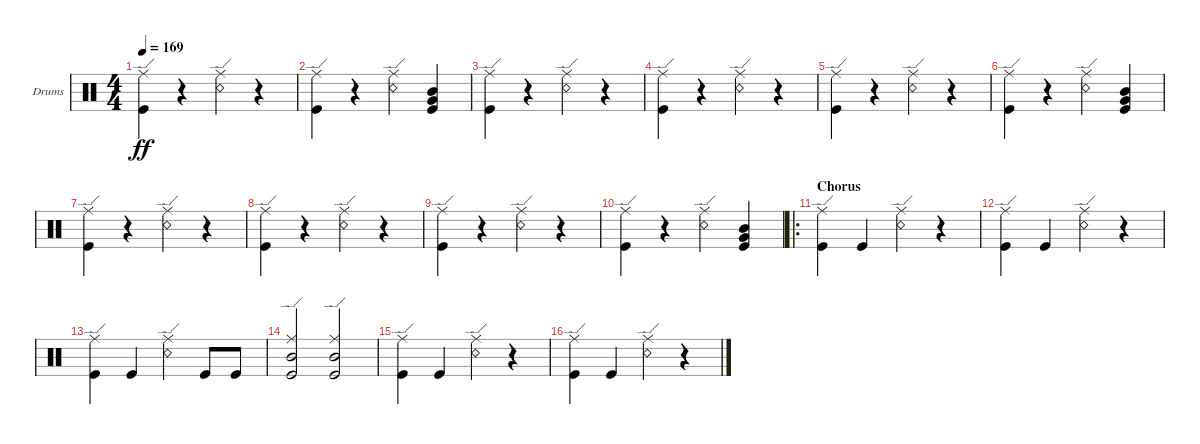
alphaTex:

\bracketExtendMode groupsimilarinstruments
\firstSystemTrackNameOrientation horizontal
\otherSystemsTrackNameOrientation horizontal
\track ("Drumkit" "Drums") {instrument percussion}
\staff {score}
\articulation defaults
\ts (4 4)
\tempo 169
\clef neutral
\ks c
("Kick (hit)" "Ride (edge)").4{dy ff} r.4 ("Snare (rim shot)" "Ride (edge)").4 r.4 |
("Kick (hit)" "Ride (edge)").4 r.4 ("Snare (rim shot)" "Ride (edge)").4 ("Mid Tom (hit)" "Very Low Tom (hit)" "Kick (hit)").4 |
("Kick (hit)" "Ride (edge)").4 r.4 ("Snare (rim shot)" "Ride (edge)").4 r.4 |
("Kick (hit)" "Ride (edge)").4 r.4 ("Snare (rim shot)" "Ride (edge)").4 r.4 |
("Kick (hit)" "Ride (edge)").4 r.4 ("Snare (rim shot)" "Ride (edge)").4 r.4 |
("Kick (hit)" "Ride (edge)").4 r.4 ("Snare (rim shot)" "Ride (edge)").4 ("Mid Tom (hit)" "Very Low Tom (hit)" "Kick (hit)").4 |
("Kick (hit)" "Ride (edge)").4 r.4 ("Snare (rim shot)" "Ride (edge)").4 r.4 |
("Kick (hit)" "Ride (edge)").4 r.4 ("Snare (rim shot)" "Ride (edge)").4 r.4 |
("Kick (hit)" "Ride (edge)").4 r.4 ("Snare (rim shot)" "Ride (edge)").4 r.4 |
("Kick (hit)" "Ride (edge)").4 r.4 ("Snare (rim shot)" "Ride (edge)").4 ("Mid Tom (hit)" "Very Low Tom (hit)" "Kick (hit)").4 |
\ro
\section ("" "Chorus")
("Kick (hit)" "Ride (edge)").4 "Kick (hit)".4 ("Snare (rim shot)" "Ride (edge)").4 r.4 |
("Kick (hit)" "Ride (edge)").4 "Kick (hit)".4 ("Snare (rim shot)" "Ride (edge)").4 r.4 |
("Kick (hit)" "Ride (edge)").4 "Kick (hit)".4 ("Snare (rim shot)" "Ride (edge)").4 "Kick (hit)".8 "Kick (hit)".8 |
("Kick (hit)" "Mid Tom (hit)" "Ride (edge)").2 ("Kick (hit)" "Mid Tom (hit)" "Ride (edge)").2 |
("Kick (hit)" "Ride (edge)").4 "Kick (hit)".4 ("Snare (rim shot)" "Ride (edge)").4 r.4 |
("Kick (hit)" "Ride (edge)").4 "Kick (hit)".4 ("Snare (rim shot)" "Ride (edge)").4 r.4
